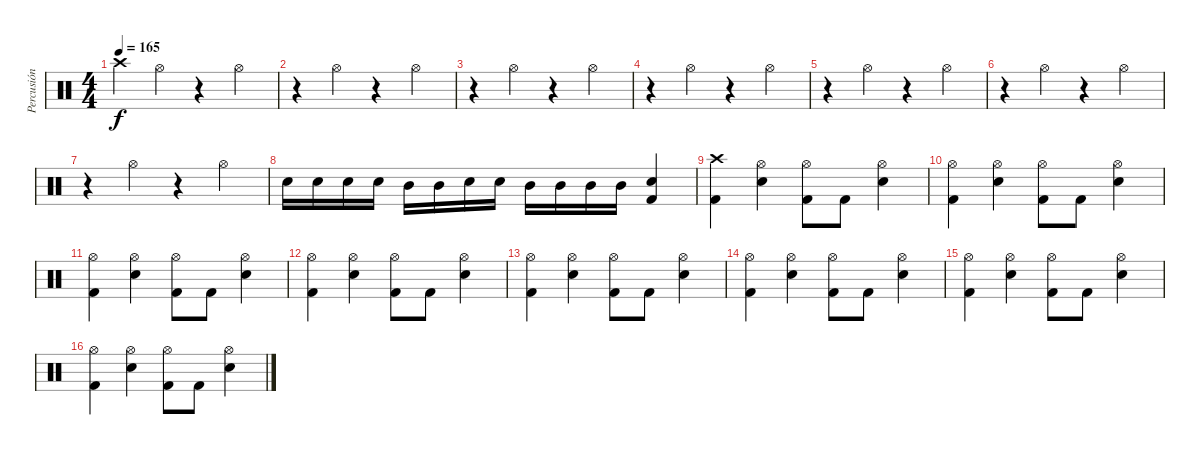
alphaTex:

\track ("Percusión" "Percusión") {instrument percussion}
\staff {score}
\articulation defaults
\ts (4 4)
\tempo 165
\clef neutral
\ks c "Crash high (hit)".4{dy f} "Hi-Hat (open)".4
r.4 "Hi-Hat (open)".4 |
r.4 "Hi-Hat (open)".4 r.4 "Hi-Hat (open)".4 |
r.4 "Hi-Hat (open)".4 r.4 "Hi-Hat (open)".4 |
r.4 "Hi-Hat (open)".4 r.4 "Hi-Hat (open)".4 |
r.4 "Hi-Hat (open)".4 r.4 "Hi-Hat (open)".4 |
r.4 "Hi-Hat (open)".4 r.4 "Hi-Hat (open)".4 |
r.4 "Hi-Hat (open)".4 r.4 "Hi-Hat (open)".4 |
"Snare (hit) 2".16 "Snare (hit) 2".16 "Snare (hit) 2".16 "Snare (hit) 2".16 "Mid Tom (hit)".16 "Mid Tom (hit)".16 "Snare (hit) 2".16 "Snare (hit) 2".16 "Mid Tom (hit)".16 "Mid Tom (hit)".16 "Mid Tom (hit)".16 "Mid Tom (hit)".16 ("Snare (hit) 2" "Kick (hit) 2").4 |
("Crash high (hit)" "Kick (hit) 2").4 ("Hi-Hat (open)" "Snare (hit) 2").4 ("Hi-Hat (open)" "Kick (hit) 2").8 "Kick (hit) 2".8 ("Hi-Hat (open)" "Snare (hit) 2").4 |
("Hi-Hat (open)" "Kick (hit) 2").4 ("Hi-Hat (open)" "Snare (hit) 2").4 ("Hi-Hat (open)" "Kick (hit) 2").8 "Kick (hit) 2".8 ("Hi-Hat (open)" "Snare (hit) 2").4 |
("Hi-Hat (open)" "Kick (hit) 2").4 ("Hi-Hat (open)" "Snare (hit) 2").4 ("Hi-Hat (open)" "Kick (hit) 2").8 "Kick (hit) 2".8 ("Hi-Hat (open)" "Snare (hit) 2").4 |
("Hi-Hat (open)" "Kick (hit) 2").4 ("Hi-Hat (open)" "Snare (hit) 2").4 ("Hi-Hat (open)" "Kick (hit) 2").8 "Kick (hit) 2".8 ("Hi-Hat (open)" "Snare (hit) 2").4 |
("Hi-Hat (open)" "Kick (hit) 2").4 ("Hi-Hat (open)" "Snare (hit) 2").4 ("Hi-Hat (open)" "Kick (hit) 2").8 "Kick (hit) 2".8 ("Hi-Hat (open)" "Snare (hit) 2").4 |
("Hi-Hat (open)" "Kick (hit) 2").4 ("Hi-Hat (open)" "Snare (hit) 2").4 ("Hi-Hat (open)" "Kick (hit) 2").8 "Kick (hit) 2".8 ("Hi-Hat (open)" "Snare (hit) 2").4 |
("Hi-Hat (open)" "Kick (hit) 2").4 ("Hi-Hat (open)" "Snare (hit) 2").4 ("Hi-Hat (open)" "Kick (hit) 2").8 "Kick (hit) 2".8 ("Hi-Hat (open)" "Snare (hit) 2").4 |
("Hi-Hat (open)" "Kick (hit) 2").4 ("Hi-Hat (open)" "Snare (hit) 2").4 ("Hi-Hat (open)" "Kick (hit) 2").8 "Kick (hit) 2".8 ("Hi-Hat (open)" "Snare (hit) 2").4
